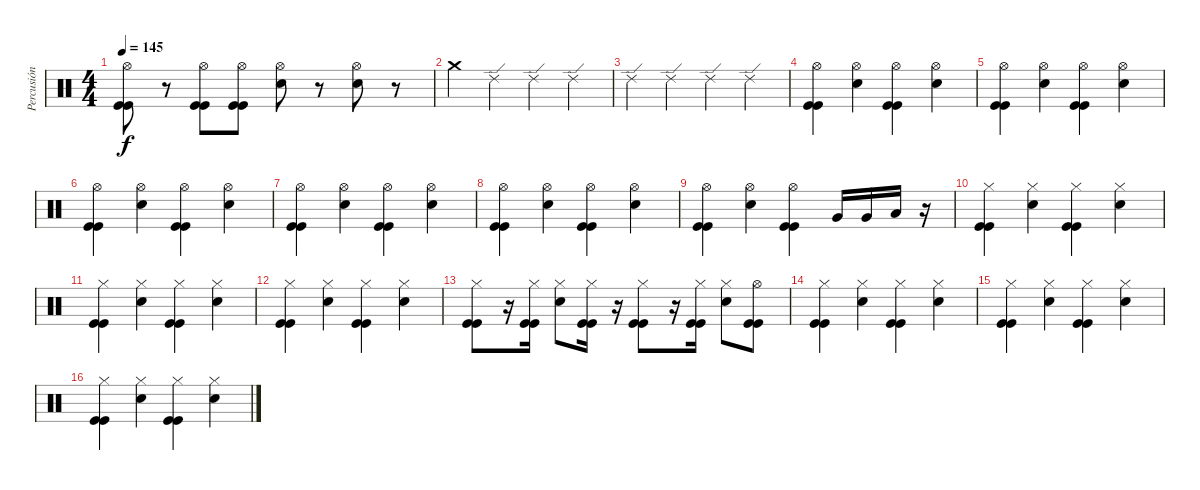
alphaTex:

\track ("Percusión" "Percusión") {instrument percussion}
\staff {score}
\articulation defaults
\ts (4 4)
\tempo 145
\clef neutral
\ks c
("Hi-Hat (open)" "Kick (hit)" "Kick (hit)").8{dy f} r.8 ("Hi-Hat (open)" "Kick (hit)" "Kick (hit)").8 ("Hi-Hat (open)" "Kick (hit)" "Kick (hit)").8 ("Hi-Hat (open)" "Electric Snare (hit)").8 r.8 ("Hi-Hat (open)" "Electric Snare (hit)").8 r.8 |
"Crash medium (hit)".4 "Ride (edge) 2".4 "Ride (edge) 2".4 "Ride (edge) 2".4 |
"Ride (edge) 2".4 "Ride (edge) 2".4 "Ride (edge) 2".4 "Ride (edge) 2".4 |
("Hi-Hat (open)" "Kick (hit)" "Kick (hit)").4 ("Hi-Hat (open)" "Electric Snare (hit)").4 ("Hi-Hat (open)" "Kick (hit)" "Kick (hit)").4 ("Hi-Hat (open)" "Electric Snare (hit)").4 |
("Hi-Hat (open)" "Kick (hit)" "Kick (hit)").4 ("Hi-Hat (open)" "Electric Snare (hit)").4 ("Hi-Hat (open)" "Kick (hit)" "Kick (hit)").4 ("Hi-Hat (open)" "Electric Snare (hit)").4 |
("Hi-Hat (open)" "Kick (hit)" "Kick (hit)").4 ("Hi-Hat (open)" "Electric Snare (hit)").4 ("Hi-Hat (open)" "Kick (hit)" "Kick (hit)").4 ("Hi-Hat (open)" "Electric Snare (hit)").4 |
("Hi-Hat (open)" "Kick (hit)" "Kick (hit)").4 ("Hi-Hat (open)" "Electric Snare (hit)").4 ("Hi-Hat (open)" "Kick (hit)" "Kick (hit)").4 ("Hi-Hat (open)" "Electric Snare (hit)").4 |
("Hi-Hat (open)" "Kick (hit)" "Kick (hit)").4 ("Hi-Hat (open)" "Electric Snare (hit)").4 ("Hi-Hat (open)" "Kick (hit)" "Kick (hit)").4 ("Hi-Hat (open)" "Electric Snare (hit)").4 |
("Hi-Hat (open)" "Kick (hit)" "Kick (hit)").4 ("Hi-Hat (open)" "Electric Snare (hit)").4 ("Hi-Hat (open)" "Kick (hit)" "Kick (hit)").4 "Very Low Tom (hit)".16 "Very Low Tom (hit)".16 "Low Floor Tom (hit)".16 r.16 |
("Hi-Hat (closed)" "Kick (hit)" "Kick (hit)").4 ("Hi-Hat (closed)" "Electric Snare (hit)").4 ("Hi-Hat (closed)" "Kick (hit)" "Kick (hit)").4 ("Hi-Hat (closed)" "Electric Snare (hit)").4 |
("Hi-Hat (closed)" "Kick (hit)" "Kick (hit)").4 ("Hi-Hat (closed)" "Electric Snare (hit)").4 ("Hi-Hat (closed)" "Kick (hit)" "Kick (hit)").4 ("Hi-Hat (closed)" "Electric Snare (hit)").4 |
("Hi-Hat (closed)" "Kick (hit)" "Kick (hit)").4 ("Hi-Hat (closed)" "Electric Snare (hit)").4 ("Hi-Hat (closed)" "Kick (hit)" "Kick (hit)").4 ("Hi-Hat (closed)" "Electric Snare (hit)").4 |
("Hi-Hat (closed)" "Kick (hit)" "Kick (hit)").8 r.16 ("Hi-Hat (closed)" "Kick (hit)" "Kick (hit)").16 ("Hi-Hat (closed)" "Electric Snare (hit)").8 ("Hi-Hat (closed)" "Kick (hit)" "Kick (hit)").16 r.16 ("Hi-Hat (closed)" "Kick (hit)" "Kick (hit)").8 r.16 ("Hi-Hat (closed)" "Kick (hit)" "Kick (hit)").16 ("Hi-Hat (closed)" "Electric Snare (hit)").8 ("Hi-Hat (open)" "Kick (hit)" "Kick (hit)").8 |
("Hi-Hat (closed)" "Kick (hit)" "Kick (hit)").4 ("Hi-Hat (closed)" "Electric Snare (hit)").4 ("Hi-Hat (closed)" "Kick (hit)" "Kick (hit)").4 ("Hi-Hat (closed)" "Electric Snare (hit)").4 |
("Hi-Hat (closed)" "Kick (hit)" "Kick (hit)").4 ("Hi-Hat (closed)" "Electric Snare (hit)").4 ("Hi-Hat (closed)" "Kick (hit)" "Kick (hit)").4 ("Hi-Hat (closed)" "Electric Snare (hit)").4 |
("Hi-Hat (closed)" "Kick (hit)" "Kick (hit)").4 ("Hi-Hat (closed)" "Electric Snare (hit)").4 ("Hi-Hat (closed)" "Kick (hit)" "Kick (hit)").4 ("Hi-Hat (closed)" "Electric Snare (hit)").4
